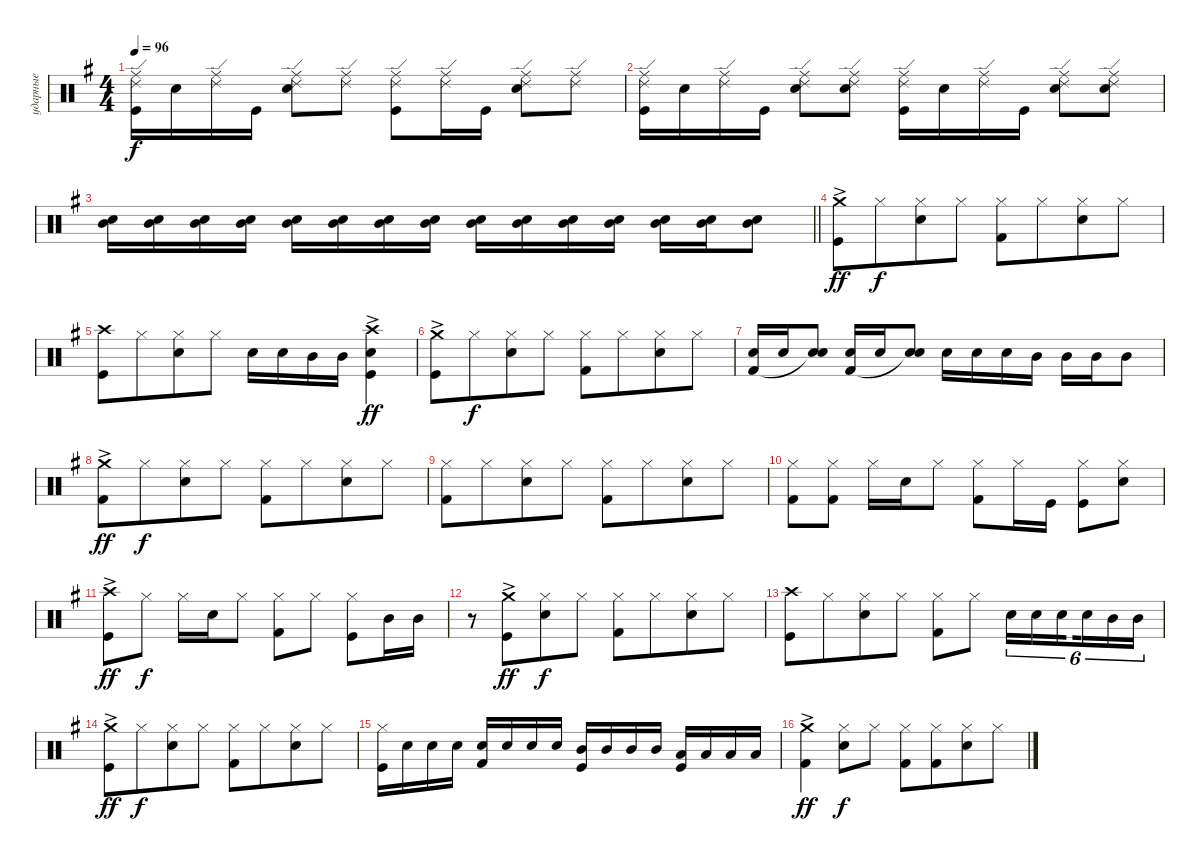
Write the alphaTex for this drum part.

\track ("ударные" "ударные") {instrument percussion}
\staff {score}
\articulation defaults
\ts (4 4)
\tempo 96
\clef neutral
\ks eminor
("Ride (middle)" "Ride (edge) 2" "Kick (hit)").16{dy f} "Snare (hit) 2".16 ("Ride (middle)" "Ride (edge) 2").16 "Kick (hit)".16 ("Snare (hit) 2" "Ride (middle)" "Ride (edge) 2").8 ("Ride (middle)" "Ride (edge) 2").8 ("Kick (hit)" "Ride (middle)" "Ride (edge) 2").8 ("Ride (middle)" "Ride (edge) 2").16 "Kick (hit)".16 ("Snare (hit) 2" "Ride (middle)" "Ride (edge) 2").8 ("Ride (middle)" "Ride (edge) 2").8 |
("Ride (middle)" "Ride (edge) 2" "Kick (hit)").16 "Snare (hit) 2".16 ("Ride (middle)" "Ride (edge) 2").16 "Kick (hit)".16 ("Snare (hit) 2" "Ride (middle)" "Ride (edge) 2").8 ("Ride (middle)" "Ride (edge) 2" "Snare (hit) 2").8 ("Ride (middle)" "Ride (edge) 2" "Kick (hit)").16 "Snare (hit) 2".16 ("Ride (middle)" "Ride (edge) 2").16 "Kick (hit)".16 ("Snare (hit) 2" "Ride (middle)" "Ride (edge) 2").8 ("Ride (middle)" "Ride (edge) 2" "Snare (hit) 2").8 |
\barLineRight lightlight
("Snare (hit) 2" "Mid Tom (hit)").16 ("Snare (hit) 2" "Mid Tom (hit)").16 ("Snare (hit) 2" "Mid Tom (hit)").16 ("Snare (hit) 2" "Mid Tom (hit)").16 ("Snare (hit) 2" "Mid Tom (hit)").16 ("Snare (hit) 2" "Mid Tom (hit)").16 ("Snare (hit) 2" "Mid Tom (hit)").16 ("Snare (hit) 2" "Mid Tom (hit)").16 ("Snare (hit) 2" "Mid Tom (hit)").16 ("Snare (hit) 2" "Mid Tom (hit)").16 ("Snare (hit) 2" "Mid Tom (hit)").16 ("Snare (hit) 2" "Mid Tom (hit)").16 ("Snare (hit) 2" "Mid Tom (hit)").16 ("Snare (hit) 2" "Mid Tom (hit)").16 ("Snare (hit) 2" "Mid Tom (hit)").8 |
\section ("" "")
("Kick (hit)" "Crash medium (hit)"{ac}).8{dy ff} "Hi-Hat (closed)".8{dy f beam merge} ("Hi-Hat (closed)" "Snare (hit) 2").8 "Hi-Hat (closed)".8 ("Hi-Hat (closed)" "Kick (hit) 2").8 "Hi-Hat (closed)".8{beam merge} ("Hi-Hat (closed)" "Snare (hit) 2").8 "Hi-Hat (closed)".8 |
("Kick (hit)" "Crash high (hit)").8 "Hi-Hat (closed)".8{beam merge} ("Hi-Hat (closed)" "Snare (hit) 2").8 "Hi-Hat (closed)".8 "Snare (hit) 2".16 "Snare (hit) 2".16 "Mid Tom (hit)".16 "Mid Tom (hit)".16 ("Kick (hit)" "Snare (hit) 2" "Crash high (hit)"{ac}).4{dy ff} |
("Kick (hit)" "Crash medium (hit)"{ac}).8 "Hi-Hat (closed)".8{dy f beam merge} ("Hi-Hat (closed)" "Snare (hit) 2").8 "Hi-Hat (closed)".8 ("Hi-Hat (closed)" "Kick (hit) 2").8 "Hi-Hat (closed)".8{beam merge} ("Hi-Hat (closed)" "Snare (hit) 2").8 "Hi-Hat (closed)".8 |
("Snare (hit) 2" "Kick (hit) 2").16 "Snare (hit) 2".16 ("Snare (hit) 2" "Snare (hit)"{t}).8 ("Snare (hit) 2" "Kick (hit) 2").16 "Snare (hit) 2".16 ("Snare (hit) 2" "Snare (hit)"{t}).8 "Snare (hit) 2".16 "Snare (hit) 2".16 "Snare (hit) 2".16 "Mid Tom (hit)".16 "Mid Tom (hit)".16 "Mid Tom (hit)".16 "Mid Tom (hit)".8 |
("Crash medium (hit)"{ac} "Kick (hit) 2").8{dy ff} "Hi-Hat (closed)".8{dy f beam merge} ("Hi-Hat (closed)" "Snare (hit) 2").8 "Hi-Hat (closed)".8 ("Hi-Hat (closed)" "Kick (hit) 2").8 "Hi-Hat (closed)".8{beam merge} ("Hi-Hat (closed)" "Snare (hit) 2").8 "Hi-Hat (closed)".8 |
("Hi-Hat (closed)" "Kick (hit) 2").8 "Hi-Hat (closed)".8{beam merge} ("Hi-Hat (closed)" "Snare (hit) 2").8 "Hi-Hat (closed)".8 ("Hi-Hat (closed)" "Kick (hit) 2").8 "Hi-Hat (closed)".8{beam merge} ("Hi-Hat (closed)" "Snare (hit) 2").8 "Hi-Hat (closed)".8 |
("Hi-Hat (closed)" "Kick (hit) 2").8 ("Hi-Hat (closed)" "Kick (hit) 2").8 "Hi-Hat (closed)".16 "Snare (hit) 2".16 "Hi-Hat (closed)".8 ("Hi-Hat (closed)" "Kick (hit) 2").8 "Hi-Hat (closed)".16 "Kick (hit)".16 ("Kick (hit)" "Hi-Hat (closed)").8 ("Hi-Hat (closed)" "Snare (hit) 2").8 |
("Kick (hit)" "Crash high (hit)"{ac}).8{dy ff} "Hi-Hat (closed)".8{dy f} "Hi-Hat (closed)".16 "Snare (hit) 2".16 "Hi-Hat (closed)".8 ("Hi-Hat (closed)" "Kick (hit) 2").8 "Hi-Hat (closed)".8 ("Kick (hit)" "Hi-Hat (closed)").8 "Mid Tom (hit)".16 "Mid Tom (hit)".16 |
r.8 ("Kick (hit)" "Crash medium (hit)"{ac}).8{dy ff beam merge} ("Hi-Hat (closed)" "Snare (hit) 2").8{dy f} "Hi-Hat (closed)".8 ("Hi-Hat (closed)" "Kick (hit) 2").8 "Hi-Hat (closed)".8{beam merge} ("Hi-Hat (closed)" "Snare (hit) 2").8 "Hi-Hat (closed)".8 |
("Kick (hit)" "Crash high (hit)").8 "Hi-Hat (closed)".8{beam merge} ("Hi-Hat (closed)" "Snare (hit) 2").8 "Hi-Hat (closed)".8 ("Hi-Hat (closed)" "Kick (hit) 2").8 "Hi-Hat (closed)".8 "Snare (hit) 2".16{tu (6 4)} "Snare (hit) 2".16{tu (6 4)} "Snare (hit) 2".16{tu (6 4) beam splitsecondary} "Snare (hit) 2".16{tu (6 4)} "Mid Tom (hit)".16{tu (6 4)} "Mid Tom (hit)".16{tu (6 4)} |
("Kick (hit)" "Crash medium (hit)"{ac}).8{dy ff} "Hi-Hat (closed)".8{dy f beam merge} ("Hi-Hat (closed)" "Snare (hit) 2").8 "Hi-Hat (closed)".8 ("Hi-Hat (closed)" "Kick (hit) 2").8 "Hi-Hat (closed)".8{beam merge} ("Hi-Hat (closed)" "Snare (hit) 2").8 "Hi-Hat (closed)".8 |
("Kick (hit)" "Hi-Hat (closed)").16 "Snare (hit) 2".16 "Snare (hit) 2".16 "Snare (hit) 2".16 ("Snare (hit) 2" "Kick (hit) 2").16 "Snare (hit) 2".16 "Snare (hit) 2".16 "Snare (hit) 2".16 ("Kick (hit)" "Mid Tom (hit)").16 "Mid Tom (hit)".16 "Mid Tom (hit)".16 "Mid Tom (hit)".16 ("Kick (hit)" "Low Tom (hit)").16 "Low Tom (hit)".16 "Low Tom (hit)".16 "Low Tom (hit)".16 |
("Crash medium (hit)"{ac} "Kick (hit) 2").4{dy ff} ("Hi-Hat (closed)" "Snare (hit) 2").8{dy f} "Hi-Hat (closed)".8 ("Hi-Hat (closed)" "Kick (hit) 2").8 ("Hi-Hat (closed)" "Kick (hit) 2").8{beam merge} ("Hi-Hat (closed)" "Snare (hit) 2").8 "Hi-Hat (closed)".8
